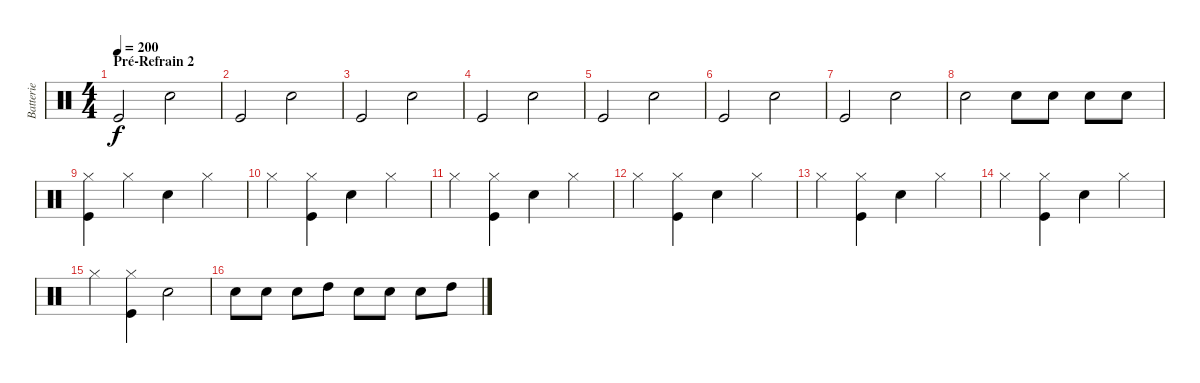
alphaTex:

\track ("Batterie" "Batterie") {instrument percussion}
\staff {score}
\articulation defaults
\ts (4 4)
\section ("" "Pré-Refrain 2")
\tempo 200
\clef neutral
\ks c "Kick (hit)".2{dy f} "Electric Snare (hit)".2
|
"Kick (hit)".2 "Electric Snare (hit)".2 |
"Kick (hit)".2 "Electric Snare (hit)".2 |
"Kick (hit)".2 "Electric Snare (hit)".2 |
"Kick (hit)".2 "Electric Snare (hit)".2 |
"Kick (hit)".2 "Electric Snare (hit)".2 |
"Kick (hit)".2 "Electric Snare (hit)".2 |
"Electric Snare (hit)".2 "Electric Snare (hit)".8 "Electric Snare (hit)".8 "Electric Snare (hit)".8 "Electric Snare (hit)".8 |
("Hi-Hat (closed)" "Kick (hit)").4 "Hi-Hat (closed)".4 "Electric Snare (hit)".4 "Hi-Hat (closed)".4 |
"Hi-Hat (closed)".4 ("Hi-Hat (closed)" "Kick (hit)").4 "Electric Snare (hit)".4 "Hi-Hat (closed)".4 |
"Hi-Hat (closed)".4 ("Hi-Hat (closed)" "Kick (hit)").4 "Electric Snare (hit)".4 "Hi-Hat (closed)".4 |
"Hi-Hat (closed)".4 ("Hi-Hat (closed)" "Kick (hit)").4 "Electric Snare (hit)".4 "Hi-Hat (closed)".4 |
"Hi-Hat (closed)".4 ("Hi-Hat (closed)" "Kick (hit)").4 "Electric Snare (hit)".4 "Hi-Hat (closed)".4 |
"Hi-Hat (closed)".4 ("Hi-Hat (closed)" "Kick (hit)").4 "Electric Snare (hit)".4 "Hi-Hat (closed)".4 |
"Hi-Hat (closed)".4 ("Hi-Hat (closed)" "Kick (hit)").4 "Electric Snare (hit)".2 |
"Electric Snare (hit)".8 "Electric Snare (hit)".8 "Electric Snare (hit)".8 "High Tom (hit)".8 "Electric Snare (hit)".8 "Electric Snare (hit)".8 "Electric Snare (hit)".8 "High Tom (hit)".8
